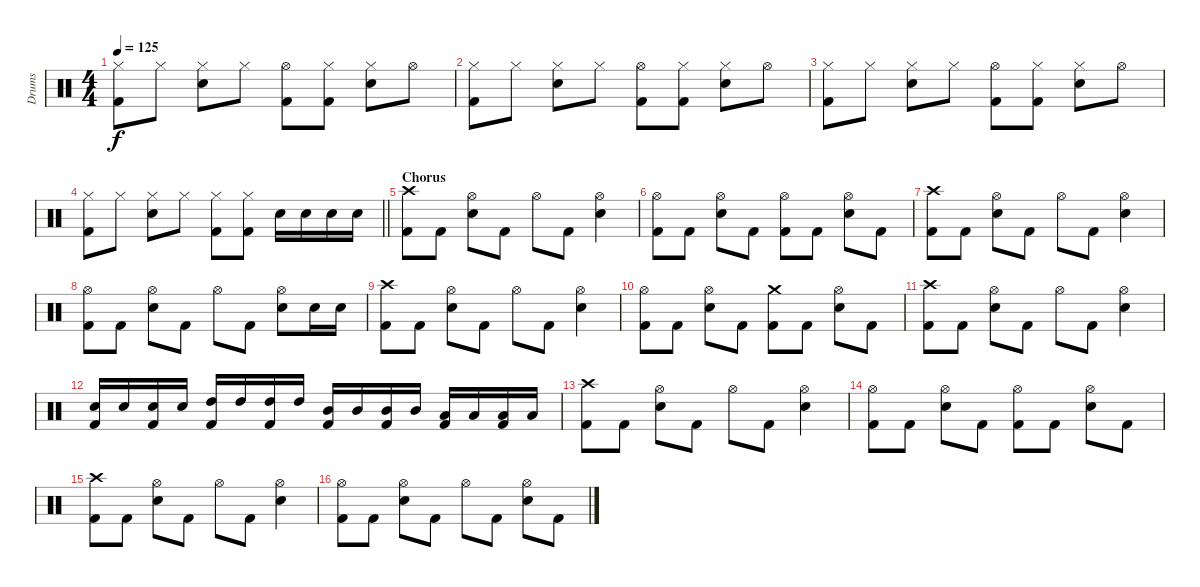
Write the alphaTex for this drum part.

\track ("Drums" "Drums") {instrument percussion}
\staff {score}
\articulation defaults
\ts (4 4)
\tempo 125
\clef neutral
\ks c
("Hi-Hat (closed)" "Kick (hit) 2").8{dy f} "Hi-Hat (closed)".8 ("Hi-Hat (closed)" "Electric Snare (hit)").8 "Hi-Hat (closed)".8 ("Hi-Hat (open)" "Kick (hit) 2").8 ("Hi-Hat (closed)" "Kick (hit) 2").8 ("Hi-Hat (closed)" "Electric Snare (hit)").8 "Hi-Hat (open)".8 |
("Hi-Hat (closed)" "Kick (hit) 2").8 "Hi-Hat (closed)".8 ("Hi-Hat (closed)" "Electric Snare (hit)").8 "Hi-Hat (closed)".8 ("Hi-Hat (open)" "Kick (hit) 2").8 ("Hi-Hat (closed)" "Kick (hit) 2").8 ("Hi-Hat (closed)" "Electric Snare (hit)").8 "Hi-Hat (open)".8 |
("Hi-Hat (closed)" "Kick (hit) 2").8 "Hi-Hat (closed)".8 ("Hi-Hat (closed)" "Electric Snare (hit)").8 "Hi-Hat (closed)".8 ("Hi-Hat (open)" "Kick (hit) 2").8 ("Hi-Hat (closed)" "Kick (hit) 2").8 ("Hi-Hat (closed)" "Electric Snare (hit)").8 "Hi-Hat (open)".8 |
\barLineRight lightlight
("Hi-Hat (closed)" "Kick (hit) 2").8 "Hi-Hat (closed)".8 ("Hi-Hat (closed)" "Electric Snare (hit)").8 "Hi-Hat (closed)".8 ("Hi-Hat (closed)" "Kick (hit) 2").8 ("Hi-Hat (closed)" "Kick (hit) 2").8 "Electric Snare (hit)".16 "Electric Snare (hit)".16 "Electric Snare (hit)".16 "Electric Snare (hit)".16 |
\section ("" "Chorus")
("Crash high (hit)" "Kick (hit) 2").8 "Kick (hit) 2".8 ("Hi-Hat (open)" "Electric Snare (hit)").8 "Kick (hit) 2".8 "Hi-Hat (open)".8 "Kick (hit) 2".8 ("Hi-Hat (open)" "Electric Snare (hit)").4 |
("Hi-Hat (open)" "Kick (hit) 2").8 "Kick (hit) 2".8 ("Hi-Hat (open)" "Electric Snare (hit)").8 "Kick (hit) 2".8 ("Hi-Hat (open)" "Kick (hit) 2").8 "Kick (hit) 2".8 ("Hi-Hat (open)" "Electric Snare (hit)").8 "Kick (hit) 2".8 |
("Crash high (hit)" "Kick (hit) 2").8 "Kick (hit) 2".8 ("Hi-Hat (open)" "Electric Snare (hit)").8 "Kick (hit) 2".8 "Hi-Hat (open)".8 "Kick (hit) 2".8 ("Hi-Hat (open)" "Electric Snare (hit)").4 |
("Hi-Hat (open)" "Kick (hit) 2").8 "Kick (hit) 2".8 ("Hi-Hat (open)" "Electric Snare (hit)").8 "Kick (hit) 2".8 "Hi-Hat (open)".8 "Kick (hit) 2".8 ("Hi-Hat (open)" "Electric Snare (hit)").8 "Electric Snare (hit)".16 "Electric Snare (hit)".16 |
("Crash high (hit)" "Kick (hit) 2").8 "Kick (hit) 2".8 ("Hi-Hat (open)" "Electric Snare (hit)").8 "Kick (hit) 2".8 "Hi-Hat (open)".8 "Kick (hit) 2".8 ("Hi-Hat (open)" "Electric Snare (hit)").4 |
("Hi-Hat (open)" "Kick (hit) 2").8 "Kick (hit) 2".8 ("Hi-Hat (open)" "Electric Snare (hit)").8 "Kick (hit) 2".8 ("Crash medium (hit)" "Kick (hit) 2").8 "Kick (hit) 2".8 ("Hi-Hat (open)" "Electric Snare (hit)").8 "Kick (hit) 2".8 |
("Crash high (hit)" "Kick (hit) 2").8 "Kick (hit) 2".8 ("Hi-Hat (open)" "Electric Snare (hit)").8 "Kick (hit) 2".8 "Hi-Hat (open)".8 "Kick (hit) 2".8 ("Hi-Hat (open)" "Electric Snare (hit)").4 |
("Electric Snare (hit)" "Kick (hit) 2").16 "Electric Snare (hit)".16 ("Electric Snare (hit)" "Kick (hit) 2").16 "Electric Snare (hit)".16 ("High Tom (hit)" "Kick (hit) 2").16 "High Tom (hit)".16 ("High Tom (hit)" "Kick (hit) 2").16 "High Tom (hit)".16 ("Mid Tom (hit)" "Kick (hit) 2").16 "Mid Tom (hit)".16 ("Mid Tom (hit)" "Kick (hit) 2").16 "Mid Tom (hit)".16 ("Low Tom (hit)" "Kick (hit) 2").16 "Low Tom (hit)".16 ("Low Tom (hit)" "Kick (hit) 2").16 "Low Tom (hit)".16 |
("Crash high (hit)" "Kick (hit) 2").8 "Kick (hit) 2".8 ("Hi-Hat (open)" "Electric Snare (hit)").8 "Kick (hit) 2".8 "Hi-Hat (open)".8 "Kick (hit) 2".8 ("Hi-Hat (open)" "Electric Snare (hit)").4 |
("Hi-Hat (open)" "Kick (hit) 2").8 "Kick (hit) 2".8 ("Hi-Hat (open)" "Electric Snare (hit)").8 "Kick (hit) 2".8 ("Hi-Hat (open)" "Kick (hit) 2").8 "Kick (hit) 2".8 ("Hi-Hat (open)" "Electric Snare (hit)").8 "Kick (hit) 2".8 |
("Crash high (hit)" "Kick (hit) 2").8 "Kick (hit) 2".8 ("Hi-Hat (open)" "Electric Snare (hit)").8 "Kick (hit) 2".8 "Hi-Hat (open)".8 "Kick (hit) 2".8 ("Hi-Hat (open)" "Electric Snare (hit)").4 |
("Hi-Hat (open)" "Kick (hit) 2").8 "Kick (hit) 2".8 ("Hi-Hat (open)" "Electric Snare (hit)").8 "Kick (hit) 2".8 "Hi-Hat (open)".8 "Kick (hit) 2".8 ("Hi-Hat (open)" "Electric Snare (hit)").8 "Kick (hit) 2".8
